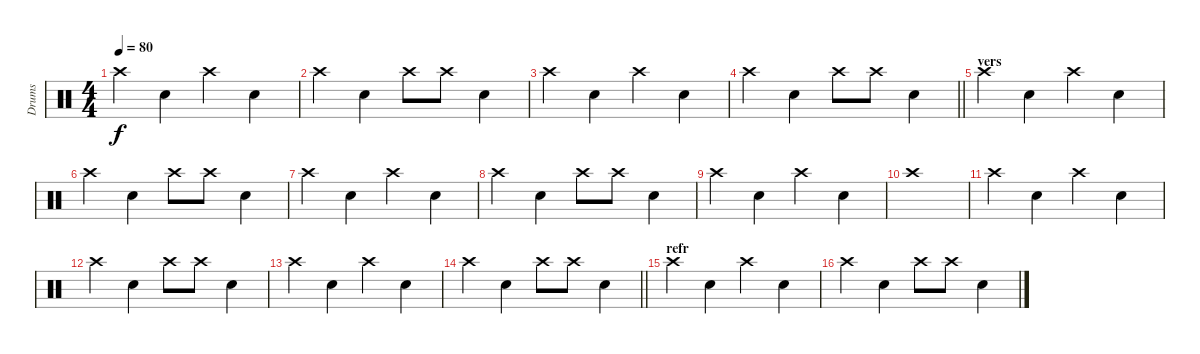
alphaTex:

\track ("Drums" "Drums") {instrument percussion}
\staff {score}
\articulation defaults
\ts (4 4)
\tempo 80
\clef neutral
\ks c "Crash high (hit)".4{dy f} "Snare (hit) 2".4 "Crash high (hit)".4 "Snare (hit) 2".4
|
"Crash high (hit)".4 "Snare (hit) 2".4 "Crash high (hit)".8 "Crash high (hit)".8 "Snare (hit) 2".4 |
"Crash high (hit)".4 "Snare (hit) 2".4 "Crash high (hit)".4 "Snare (hit) 2".4 |
\barLineRight lightlight "Crash high (hit)".4 "Snare (hit) 2".4 "Crash high (hit)".8 "Crash high (hit)".8 "Snare (hit) 2".4
|
\section ("" "vers")
"Crash high (hit)".4 "Snare (hit) 2".4 "Crash high (hit)".4 "Snare (hit) 2".4 |
"Crash high (hit)".4 "Snare (hit) 2".4 "Crash high (hit)".8 "Crash high (hit)".8 "Snare (hit) 2".4 |
"Crash high (hit)".4 "Snare (hit) 2".4 "Crash high (hit)".4 "Snare (hit) 2".4 |
"Crash high (hit)".4 "Snare (hit) 2".4 "Crash high (hit)".8 "Crash high (hit)".8 "Snare (hit) 2".4 |
"Crash high (hit)".4 "Snare (hit) 2".4 "Crash high (hit)".4 "Snare (hit) 2".4 |
"Crash high (hit)".1 |
"Crash high (hit)".4 "Snare (hit) 2".4 "Crash high (hit)".4 "Snare (hit) 2".4 |
"Crash high (hit)".4 "Snare (hit) 2".4 "Crash high (hit)".8 "Crash high (hit)".8 "Snare (hit) 2".4 |
"Crash high (hit)".4 "Snare (hit) 2".4 "Crash high (hit)".4 "Snare (hit) 2".4 |
\barLineRight lightlight "Crash high (hit)".4 "Snare (hit) 2".4 "Crash high (hit)".8 "Crash high (hit)".8 "Snare (hit) 2".4
|
\section ("" "refr")
"Crash high (hit)".4 "Snare (hit) 2".4 "Crash high (hit)".4 "Snare (hit) 2".4 |
"Crash high (hit)".4 "Snare (hit) 2".4 "Crash high (hit)".8 "Crash high (hit)".8 "Snare (hit) 2".4
